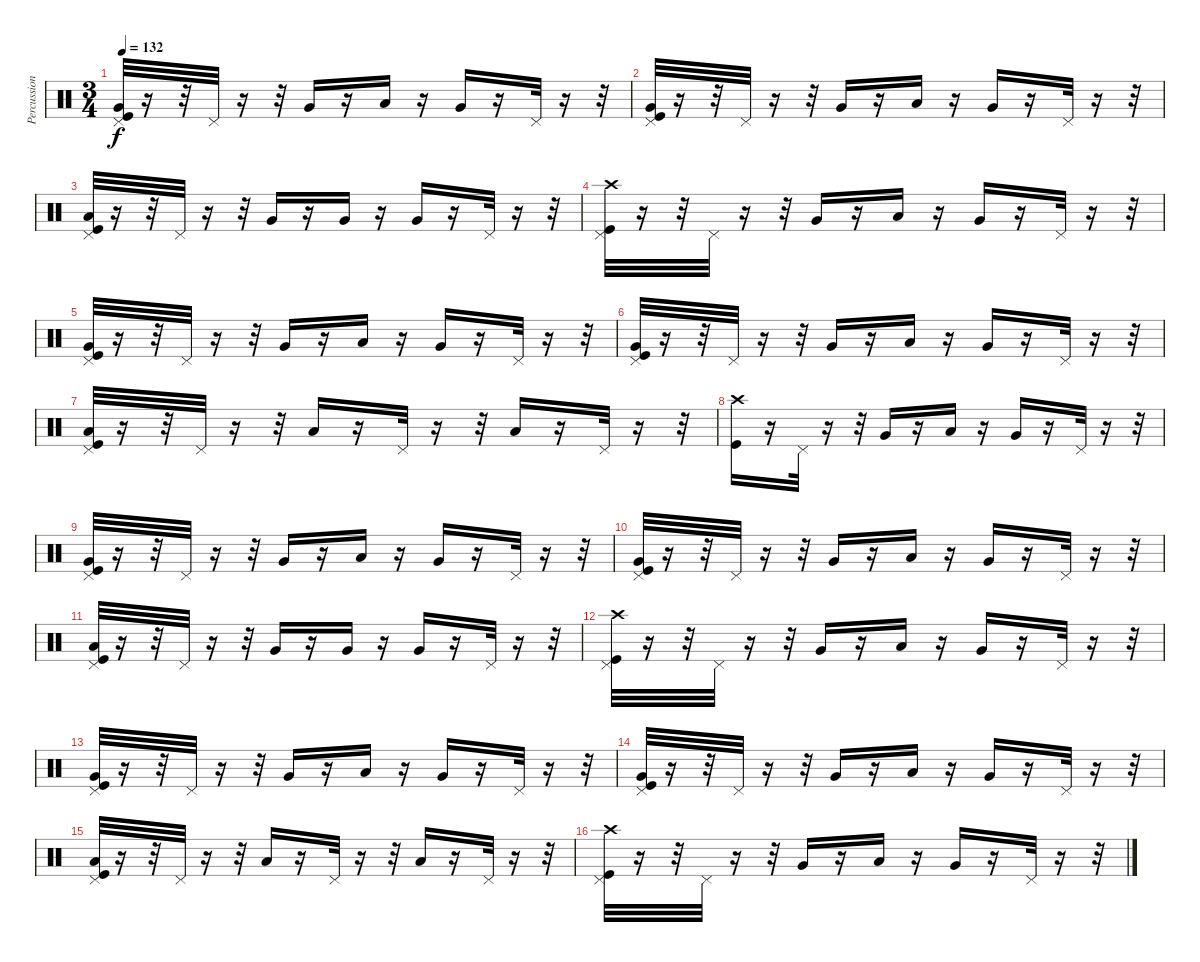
\track ("Percussion" "Percussion") {instrument percussion}
\staff {score}
\articulation defaults
\ts (3 4)
\tempo 132
\clef neutral
\ks c
("Kick (hit)" "Pedal Hi-Hat (hit)" "Very Low Tom (hit)").32{dy f} r.16 r.32 "Pedal Hi-Hat (hit)".32 r.16 r.32 "Very Low Tom (hit)".16 r.16 "Low Tom (hit)".16 r.16 "Very Low Tom (hit)".16 r.16 "Pedal Hi-Hat (hit)".32 r.16 r.32 |
("Kick (hit)" "Pedal Hi-Hat (hit)" "Very Low Tom (hit)").32 r.16 r.32 "Pedal Hi-Hat (hit)".32 r.16 r.32 "Very Low Tom (hit)".16 r.16 "Low Tom (hit)".16 r.16 "Very Low Tom (hit)".16 r.16 "Pedal Hi-Hat (hit)".32 r.16 r.32 |
("Kick (hit)" "Low Tom (hit)" "Pedal Hi-Hat (hit)").32 r.16 r.32 "Pedal Hi-Hat (hit)".32 r.16 r.32 "Very Low Tom (hit)".16 r.16 "Very Low Tom (hit)".16 r.16 "Very Low Tom (hit)".16 r.16 "Pedal Hi-Hat (hit)".32 r.16 r.32 |
("Kick (hit)" "Crash high (hit)" "Pedal Hi-Hat (hit)").32 r.16 r.32 "Pedal Hi-Hat (hit)".32 r.16 r.32 "Very Low Tom (hit)".16 r.16 "Low Tom (hit)".16 r.16 "Very Low Tom (hit)".16 r.16 "Pedal Hi-Hat (hit)".32 r.16 r.32 |
("Kick (hit)" "Pedal Hi-Hat (hit)" "Very Low Tom (hit)").32 r.16 r.32 "Pedal Hi-Hat (hit)".32 r.16 r.32 "Very Low Tom (hit)".16 r.16 "Low Tom (hit)".16 r.16 "Very Low Tom (hit)".16 r.16 "Pedal Hi-Hat (hit)".32 r.16 r.32 |
("Kick (hit)" "Pedal Hi-Hat (hit)" "Very Low Tom (hit)").32 r.16 r.32 "Pedal Hi-Hat (hit)".32 r.16 r.32 "Very Low Tom (hit)".16 r.16 "Low Tom (hit)".16 r.16 "Very Low Tom (hit)".16 r.16 "Pedal Hi-Hat (hit)".32 r.16 r.32 |
("Kick (hit)" "Low Tom (hit)" "Pedal Hi-Hat (hit)").32 r.16 r.32 "Pedal Hi-Hat (hit)".32 r.16 r.32 "Low Floor Tom (hit)".16 r.16 "Pedal Hi-Hat (hit)".32 r.16 r.32 "Low Floor Tom (hit)".16 r.16 "Pedal Hi-Hat (hit)".32 r.16 r.32 |
("Crash high (hit)" "Kick (hit)").16 r.16 "Pedal Hi-Hat (hit)".32 r.16 r.32 "Very Low Tom (hit)".16 r.16 "Low Tom (hit)".16 r.16 "Very Low Tom (hit)".16 r.16 "Pedal Hi-Hat (hit)".32 r.16 r.32 |
("Kick (hit)" "Pedal Hi-Hat (hit)" "Very Low Tom (hit)").32 r.16 r.32 "Pedal Hi-Hat (hit)".32 r.16 r.32 "Very Low Tom (hit)".16 r.16 "Low Tom (hit)".16 r.16 "Very Low Tom (hit)".16 r.16 "Pedal Hi-Hat (hit)".32 r.16 r.32 |
("Kick (hit)" "Pedal Hi-Hat (hit)" "Very Low Tom (hit)").32 r.16 r.32 "Pedal Hi-Hat (hit)".32 r.16 r.32 "Very Low Tom (hit)".16 r.16 "Low Tom (hit)".16 r.16 "Very Low Tom (hit)".16 r.16 "Pedal Hi-Hat (hit)".32 r.16 r.32 |
("Kick (hit)" "Low Tom (hit)" "Pedal Hi-Hat (hit)").32 r.16 r.32 "Pedal Hi-Hat (hit)".32 r.16 r.32 "Very Low Tom (hit)".16 r.16 "Very Low Tom (hit)".16 r.16 "Very Low Tom (hit)".16 r.16 "Pedal Hi-Hat (hit)".32 r.16 r.32 |
("Kick (hit)" "Crash high (hit)" "Pedal Hi-Hat (hit)").32 r.16 r.32 "Pedal Hi-Hat (hit)".32 r.16 r.32 "Very Low Tom (hit)".16 r.16 "Low Tom (hit)".16 r.16 "Very Low Tom (hit)".16 r.16 "Pedal Hi-Hat (hit)".32 r.16 r.32 |
("Kick (hit)" "Pedal Hi-Hat (hit)" "Very Low Tom (hit)").32 r.16 r.32 "Pedal Hi-Hat (hit)".32 r.16 r.32 "Very Low Tom (hit)".16 r.16 "Low Tom (hit)".16 r.16 "Very Low Tom (hit)".16 r.16 "Pedal Hi-Hat (hit)".32 r.16 r.32 |
("Kick (hit)" "Pedal Hi-Hat (hit)" "Very Low Tom (hit)").32 r.16 r.32 "Pedal Hi-Hat (hit)".32 r.16 r.32 "Very Low Tom (hit)".16 r.16 "Low Tom (hit)".16 r.16 "Very Low Tom (hit)".16 r.16 "Pedal Hi-Hat (hit)".32 r.16 r.32 |
("Kick (hit)" "Low Tom (hit)" "Pedal Hi-Hat (hit)").32 r.16 r.32 "Pedal Hi-Hat (hit)".32 r.16 r.32 "Low Floor Tom (hit)".16 r.16 "Pedal Hi-Hat (hit)".32 r.16 r.32 "Low Floor Tom (hit)".16 r.16 "Pedal Hi-Hat (hit)".32 r.16 r.32 |
("Pedal Hi-Hat (hit)" "Kick (hit)" "Crash high (hit)").32 r.16 r.32 "Pedal Hi-Hat (hit)".32 r.16 r.32 "Very Low Tom (hit)".16 r.16 "Low Tom (hit)".16 r.16 "Very Low Tom (hit)".16 r.16 "Pedal Hi-Hat (hit)".32 r.16 r.32
